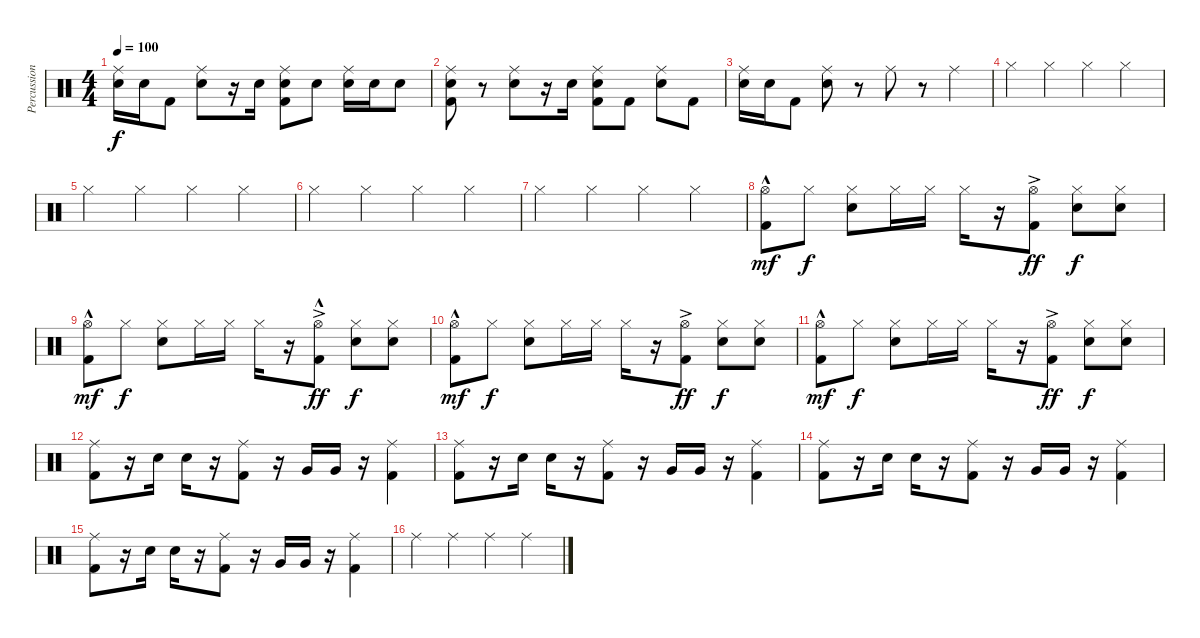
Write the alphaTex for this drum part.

\track ("Percussion" "Percussion") {instrument percussion}
\staff {score}
\articulation defaults
\ts (4 4)
\tempo 100
\clef neutral
\ks c
("Ride (middle)" "Hand Clap (hit)").16{dy f} "Snare (hit) 2".16 "Kick (hit) 2".8 ("Ride (middle)" "Snare (hit) 2").8 r.16 "Snare (hit) 2".16 ("Ride (middle)" "Hand Clap (hit)" "Kick (hit) 2").8 "Snare (hit) 2".8 ("Ride (middle)" "Snare (hit) 2").16 "Snare (hit) 2".16 "Snare (hit) 2".8 |
("Ride (middle)" "Hand Clap (hit)" "Kick (hit) 2").8 r.8 ("Ride (middle)" "Snare (hit) 2").8 r.16 "Snare (hit) 2".16 ("Ride (middle)" "Hand Clap (hit)" "Kick (hit) 2").8 "Kick (hit) 2".8 ("Ride (middle)" "Snare (hit) 2").8 "Kick (hit) 2".8 |
("Ride (middle)" "Hand Clap (hit)").16 "Snare (hit) 2".16 "Kick (hit) 2".8 ("Ride (middle)" "Snare (hit) 2").8 r.8 "Ride (middle)".8 r.8 "Ride (middle)".4 |
"Hi-Hat (closed)".4 "Hi-Hat (closed)".4 "Hi-Hat (closed)".4 "Hi-Hat (closed)".4 |
"Hi-Hat (closed)".4 "Hi-Hat (closed)".4 "Hi-Hat (closed)".4 "Hi-Hat (closed)".4 |
"Hi-Hat (closed)".4 "Hi-Hat (closed)".4 "Hi-Hat (closed)".4 "Hi-Hat (closed)".4 |
"Hi-Hat (closed)".4 "Hi-Hat (closed)".4 "Hi-Hat (closed)".4 "Hi-Hat (closed)".4 |
("Hi-Hat (open)"{hac} "Kick (hit) 2"{hac}).8{dy mf} "Hi-Hat (closed)".8{dy f} ("Hi-Hat (closed)" "Snare (hit) 2").8 "Hi-Hat (closed)".16 "Hi-Hat (closed)".16 "Hi-Hat (closed)".16 r.16 ("Hi-Hat (open)"{ac} "Kick (hit) 2"{ac}).8{dy ff} ("Hi-Hat (closed)" "Snare (hit) 2").8{dy f} ("Hi-Hat (closed)" "Snare (hit) 2").8 |
("Hi-Hat (open)"{hac} "Kick (hit) 2"{hac}).8{dy mf} "Hi-Hat (closed)".8{dy f} ("Hi-Hat (closed)" "Snare (hit) 2").8 "Hi-Hat (closed)".16 "Hi-Hat (closed)".16 "Hi-Hat (closed)".16 r.16 ("Hi-Hat (open)"{ac} "Kick (hit) 2"{hac}).8{dy ff} ("Hi-Hat (closed)" "Snare (hit) 2").8{dy f} ("Hi-Hat (closed)" "Snare (hit) 2").8 |
("Hi-Hat (open)"{hac} "Kick (hit) 2"{hac}).8{dy mf} "Hi-Hat (closed)".8{dy f} ("Hi-Hat (closed)" "Snare (hit) 2").8 "Hi-Hat (closed)".16 "Hi-Hat (closed)".16 "Hi-Hat (closed)".16 r.16 ("Hi-Hat (open)"{ac} "Kick (hit) 2"{ac}).8{dy ff} ("Hi-Hat (closed)" "Snare (hit) 2").8{dy f} ("Hi-Hat (closed)" "Snare (hit) 2").8 |
("Hi-Hat (open)"{hac} "Kick (hit) 2"{hac}).8{dy mf} "Hi-Hat (closed)".8{dy f} ("Hi-Hat (closed)" "Snare (hit) 2").8 "Hi-Hat (closed)".16 "Hi-Hat (closed)".16 "Hi-Hat (closed)".16 r.16 ("Hi-Hat (open)"{ac} "Kick (hit) 2"{ac}).8{dy ff} ("Hi-Hat (closed)" "Snare (hit) 2").8{dy f} ("Hi-Hat (closed)" "Snare (hit) 2").8 |
("Ride (middle)" "Kick (hit) 2").8 r.16 "Snare (hit) 2".16 "Snare (hit) 2".16 r.16 ("Ride (middle)" "Kick (hit) 2").8 r.16 "Very Low Tom (hit)".16 "Very Low Tom (hit)".16 r.16 ("Ride (middle)" "Kick (hit) 2").4 |
("Ride (middle)" "Kick (hit) 2").8 r.16 "Snare (hit) 2".16 "Snare (hit) 2".16 r.16 ("Ride (middle)" "Kick (hit) 2").8 r.16 "Very Low Tom (hit)".16 "Very Low Tom (hit)".16 r.16 ("Ride (middle)" "Kick (hit) 2").4 |
("Ride (middle)" "Kick (hit) 2").8 r.16 "Snare (hit) 2".16 "Snare (hit) 2".16 r.16 ("Ride (middle)" "Kick (hit) 2").8 r.16 "Very Low Tom (hit)".16 "Very Low Tom (hit)".16 r.16 ("Ride (middle)" "Kick (hit) 2").4 |
("Ride (middle)" "Kick (hit) 2").8 r.16 "Snare (hit) 2".16 "Snare (hit) 2".16 r.16 ("Ride (middle)" "Kick (hit) 2").8 r.16 "Very Low Tom (hit)".16 "Very Low Tom (hit)".16 r.16 ("Ride (middle)" "Kick (hit) 2").4 |
"Ride (middle)".4 "Ride (middle)".4 "Ride (middle)".4 "Ride (middle)".4
